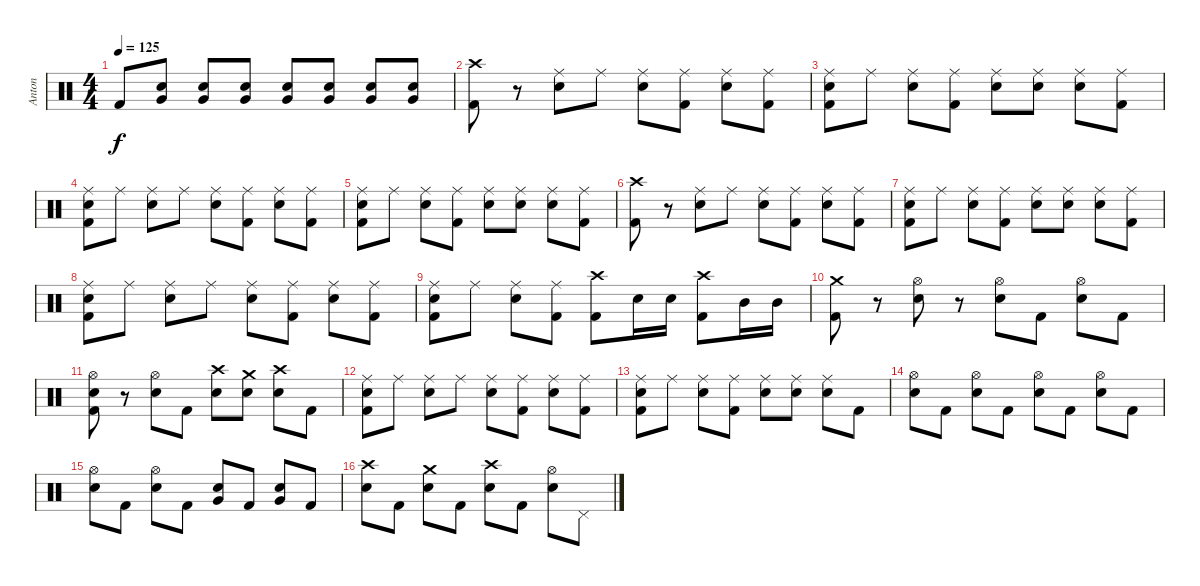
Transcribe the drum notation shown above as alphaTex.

\track ("Anton" "Anton") {instrument percussion}
\staff {score}
\articulation defaults
\ts (4 4)
\tempo 125
\clef neutral
\ks c "Kick (hit) 2".8{dy f}
("Electric Snare (hit)" "Very Low Tom (hit)").8 ("Electric Snare (hit)" "Very Low Tom (hit)").8 ("Electric Snare (hit)" "Very Low Tom (hit)").8 ("Electric Snare (hit)" "Very Low Tom (hit)").8 ("Electric Snare (hit)" "Very Low Tom (hit)").8 ("Electric Snare (hit)" "Very Low Tom (hit)").8 ("Electric Snare (hit)" "Very Low Tom (hit)").8 |
("Kick (hit) 2" "Crash high (hit)").8 r.8 ("Electric Snare (hit)" "Ride (middle)").8 "Ride (middle)".8 ("Electric Snare (hit)" "Ride (middle)").8 ("Kick (hit) 2" "Ride (middle)").8 ("Electric Snare (hit)" "Ride (middle)").8 ("Kick (hit) 2" "Ride (middle)").8 |
("Kick (hit) 2" "Electric Snare (hit)" "Ride (middle)").8 "Ride (middle)".8 ("Electric Snare (hit)" "Ride (middle)").8 ("Kick (hit) 2" "Ride (middle)").8 ("Electric Snare (hit)" "Ride (middle)").8 ("Electric Snare (hit)" "Ride (middle)").8 ("Electric Snare (hit)" "Ride (middle)").8 ("Kick (hit) 2" "Ride (middle)").8 |
("Kick (hit) 2" "Electric Snare (hit)" "Ride (middle)").8 "Ride (middle)".8 ("Electric Snare (hit)" "Ride (middle)").8 "Ride (middle)".8 ("Electric Snare (hit)" "Ride (middle)").8 ("Kick (hit) 2" "Ride (middle)").8 ("Electric Snare (hit)" "Ride (middle)").8 ("Kick (hit) 2" "Ride (middle)").8 |
("Kick (hit) 2" "Electric Snare (hit)" "Ride (middle)").8 "Ride (middle)".8 ("Electric Snare (hit)" "Ride (middle)").8 ("Kick (hit) 2" "Ride (middle)").8 ("Electric Snare (hit)" "Ride (middle)").8 ("Electric Snare (hit)" "Ride (middle)").8 ("Electric Snare (hit)" "Ride (middle)").8 ("Kick (hit) 2" "Ride (middle)").8 |
("Kick (hit) 2" "Crash high (hit)").8 r.8 ("Electric Snare (hit)" "Ride (middle)").8 "Ride (middle)".8 ("Electric Snare (hit)" "Ride (middle)").8 ("Kick (hit) 2" "Ride (middle)").8 ("Electric Snare (hit)" "Ride (middle)").8 ("Kick (hit) 2" "Ride (middle)").8 |
("Kick (hit) 2" "Electric Snare (hit)" "Ride (middle)").8 "Ride (middle)".8 ("Electric Snare (hit)" "Ride (middle)").8 ("Kick (hit) 2" "Ride (middle)").8 ("Electric Snare (hit)" "Ride (middle)").8 ("Electric Snare (hit)" "Ride (middle)").8 ("Electric Snare (hit)" "Ride (middle)").8 ("Kick (hit) 2" "Ride (middle)").8 |
("Kick (hit) 2" "Electric Snare (hit)" "Ride (middle)").8 "Ride (middle)".8 ("Electric Snare (hit)" "Ride (middle)").8 "Ride (middle)".8 ("Electric Snare (hit)" "Ride (middle)").8 ("Kick (hit) 2" "Ride (middle)").8 ("Electric Snare (hit)" "Ride (middle)").8 ("Kick (hit) 2" "Ride (middle)").8 |
("Kick (hit) 2" "Electric Snare (hit)" "Ride (middle)").8 "Ride (middle)".8 ("Electric Snare (hit)" "Ride (middle)").8 ("Kick (hit) 2" "Ride (middle)").8 ("Kick (hit) 2" "Crash high (hit)").8 "Electric Snare (hit)".16 "Electric Snare (hit)".16 ("Kick (hit) 2" "Crash high (hit)").8 "Mid Tom (hit)".16 "Mid Tom (hit)".16 |
("Kick (hit) 2" "Crash medium (hit)").8 r.8 ("Electric Snare (hit)" "Hi-Hat (open)").8 r.8 ("Electric Snare (hit)" "Hi-Hat (open)").8 "Kick (hit) 2".8 ("Electric Snare (hit)" "Hi-Hat (open)").8 "Kick (hit) 2".8 |
("Kick (hit) 2" "Electric Snare (hit)" "Hi-Hat (open)").8 r.8 ("Electric Snare (hit)" "Hi-Hat (open)").8 "Kick (hit) 2".8 ("Electric Snare (hit)" "Crash high (hit)").8 ("Electric Snare (hit)" "Crash medium (hit)").8 ("Electric Snare (hit)" "Crash high (hit)").8 "Kick (hit) 2".8 |
("Kick (hit) 2" "Electric Snare (hit)" "Ride (middle)").8 "Ride (middle)".8 ("Electric Snare (hit)" "Ride (middle)").8 "Ride (middle)".8 ("Electric Snare (hit)" "Ride (middle)").8 ("Kick (hit) 2" "Ride (middle)").8 ("Electric Snare (hit)" "Ride (middle)").8 ("Kick (hit) 2" "Ride (middle)").8 |
("Kick (hit) 2" "Electric Snare (hit)" "Ride (middle)").8 "Ride (middle)".8 ("Electric Snare (hit)" "Ride (middle)").8 ("Kick (hit) 2" "Ride (middle)").8 ("Electric Snare (hit)" "Ride (middle)").8 ("Electric Snare (hit)" "Ride (middle)").8 ("Electric Snare (hit)" "Ride (middle)").8 "Kick (hit) 2".8 |
("Electric Snare (hit)" "Hi-Hat (open)").8 "Kick (hit) 2".8 ("Electric Snare (hit)" "Hi-Hat (open)").8 "Kick (hit) 2".8 ("Electric Snare (hit)" "Hi-Hat (open)").8 "Kick (hit) 2".8 ("Electric Snare (hit)" "Hi-Hat (open)").8 "Kick (hit) 2".8 |
("Electric Snare (hit)" "Hi-Hat (open)").8 "Kick (hit) 2".8 ("Electric Snare (hit)" "Hi-Hat (open)").8 "Kick (hit) 2".8 ("Electric Snare (hit)" "Very Low Tom (hit)").8 "Kick (hit) 2".8 ("Electric Snare (hit)" "Very Low Tom (hit)").8 "Kick (hit) 2".8 |
("Electric Snare (hit)" "Crash high (hit)").8 "Kick (hit) 2".8 ("Electric Snare (hit)" "Crash medium (hit)").8 "Kick (hit) 2".8 ("Electric Snare (hit)" "Crash high (hit)").8 "Kick (hit) 2".8 ("Electric Snare (hit)" "Hi-Hat (open)").8 "Pedal Hi-Hat (hit)".8
